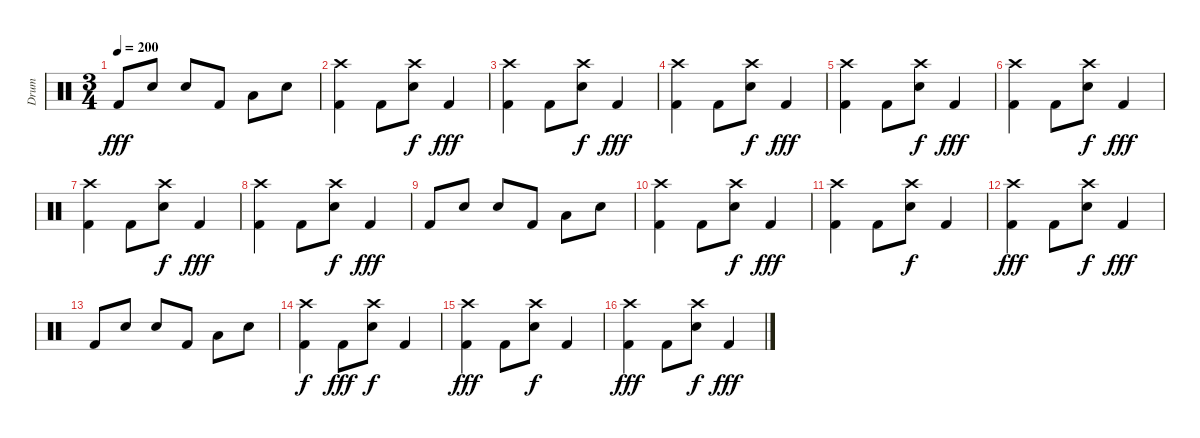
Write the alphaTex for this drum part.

\track ("Drum" "Drum") {instrument percussion}
\staff {score}
\articulation defaults
\ts (3 4)
\tempo 200
\clef neutral
\ks c "Kick (hit) 2".8{dy fff} "Snare (hit) 2".8 "Snare (hit) 2".8 "Kick (hit) 2".8 "Low Tom (hit)".8 "Snare (hit) 2".8
|
("Crash high (hit)" "Kick (hit) 2").4 "Kick (hit) 2".8 ("Crash high (hit)" "Snare (hit) 2").8{dy f} "Kick (hit) 2".4{dy fff} |
("Crash high (hit)" "Kick (hit) 2").4 "Kick (hit) 2".8 ("Crash high (hit)" "Snare (hit) 2").8{dy f} "Kick (hit) 2".4{dy fff} |
("Crash high (hit)" "Kick (hit) 2").4 "Kick (hit) 2".8 ("Crash high (hit)" "Snare (hit) 2").8{dy f} "Kick (hit) 2".4{dy fff} |
("Crash high (hit)" "Kick (hit) 2").4 "Kick (hit) 2".8 ("Crash high (hit)" "Snare (hit) 2").8{dy f} "Kick (hit) 2".4{dy fff} |
("Crash high (hit)" "Kick (hit) 2").4 "Kick (hit) 2".8 ("Crash high (hit)" "Snare (hit) 2").8{dy f} "Kick (hit) 2".4{dy fff} |
("Crash high (hit)" "Kick (hit) 2").4 "Kick (hit) 2".8 ("Crash high (hit)" "Snare (hit) 2").8{dy f} "Kick (hit) 2".4{dy fff} |
("Crash high (hit)" "Kick (hit) 2").4 "Kick (hit) 2".8 ("Crash high (hit)" "Snare (hit) 2").8{dy f} "Kick (hit) 2".4{dy fff} |
"Kick (hit) 2".8 "Snare (hit) 2".8 "Snare (hit) 2".8 "Kick (hit) 2".8 "Low Tom (hit)".8 "Snare (hit) 2".8 |
("Crash high (hit)" "Kick (hit) 2").4 "Kick (hit) 2".8 ("Crash high (hit)" "Snare (hit) 2").8{dy f} "Kick (hit) 2".4{dy fff} |
("Crash high (hit)" "Kick (hit) 2").4 "Kick (hit) 2".8 ("Crash high (hit)" "Snare (hit) 2").8{dy f} "Kick (hit) 2".4 |
("Crash high (hit)" "Kick (hit) 2").4{dy fff} "Kick (hit) 2".8 ("Crash high (hit)" "Snare (hit) 2").8{dy f} "Kick (hit) 2".4{dy fff} |
"Kick (hit) 2".8 "Snare (hit) 2".8 "Snare (hit) 2".8 "Kick (hit) 2".8 "Low Tom (hit)".8 "Snare (hit) 2".8 |
("Crash high (hit)" "Kick (hit) 2").4{dy f} "Kick (hit) 2".8{dy fff} ("Crash high (hit)" "Snare (hit) 2").8{dy f} "Kick (hit) 2".4 |
("Crash high (hit)" "Kick (hit) 2").4{dy fff} "Kick (hit) 2".8 ("Crash high (hit)" "Snare (hit) 2").8{dy f} "Kick (hit) 2".4 |
("Crash high (hit)" "Kick (hit) 2").4{dy fff} "Kick (hit) 2".8 ("Crash high (hit)" "Snare (hit) 2").8{dy f} "Kick (hit) 2".4{dy fff}
